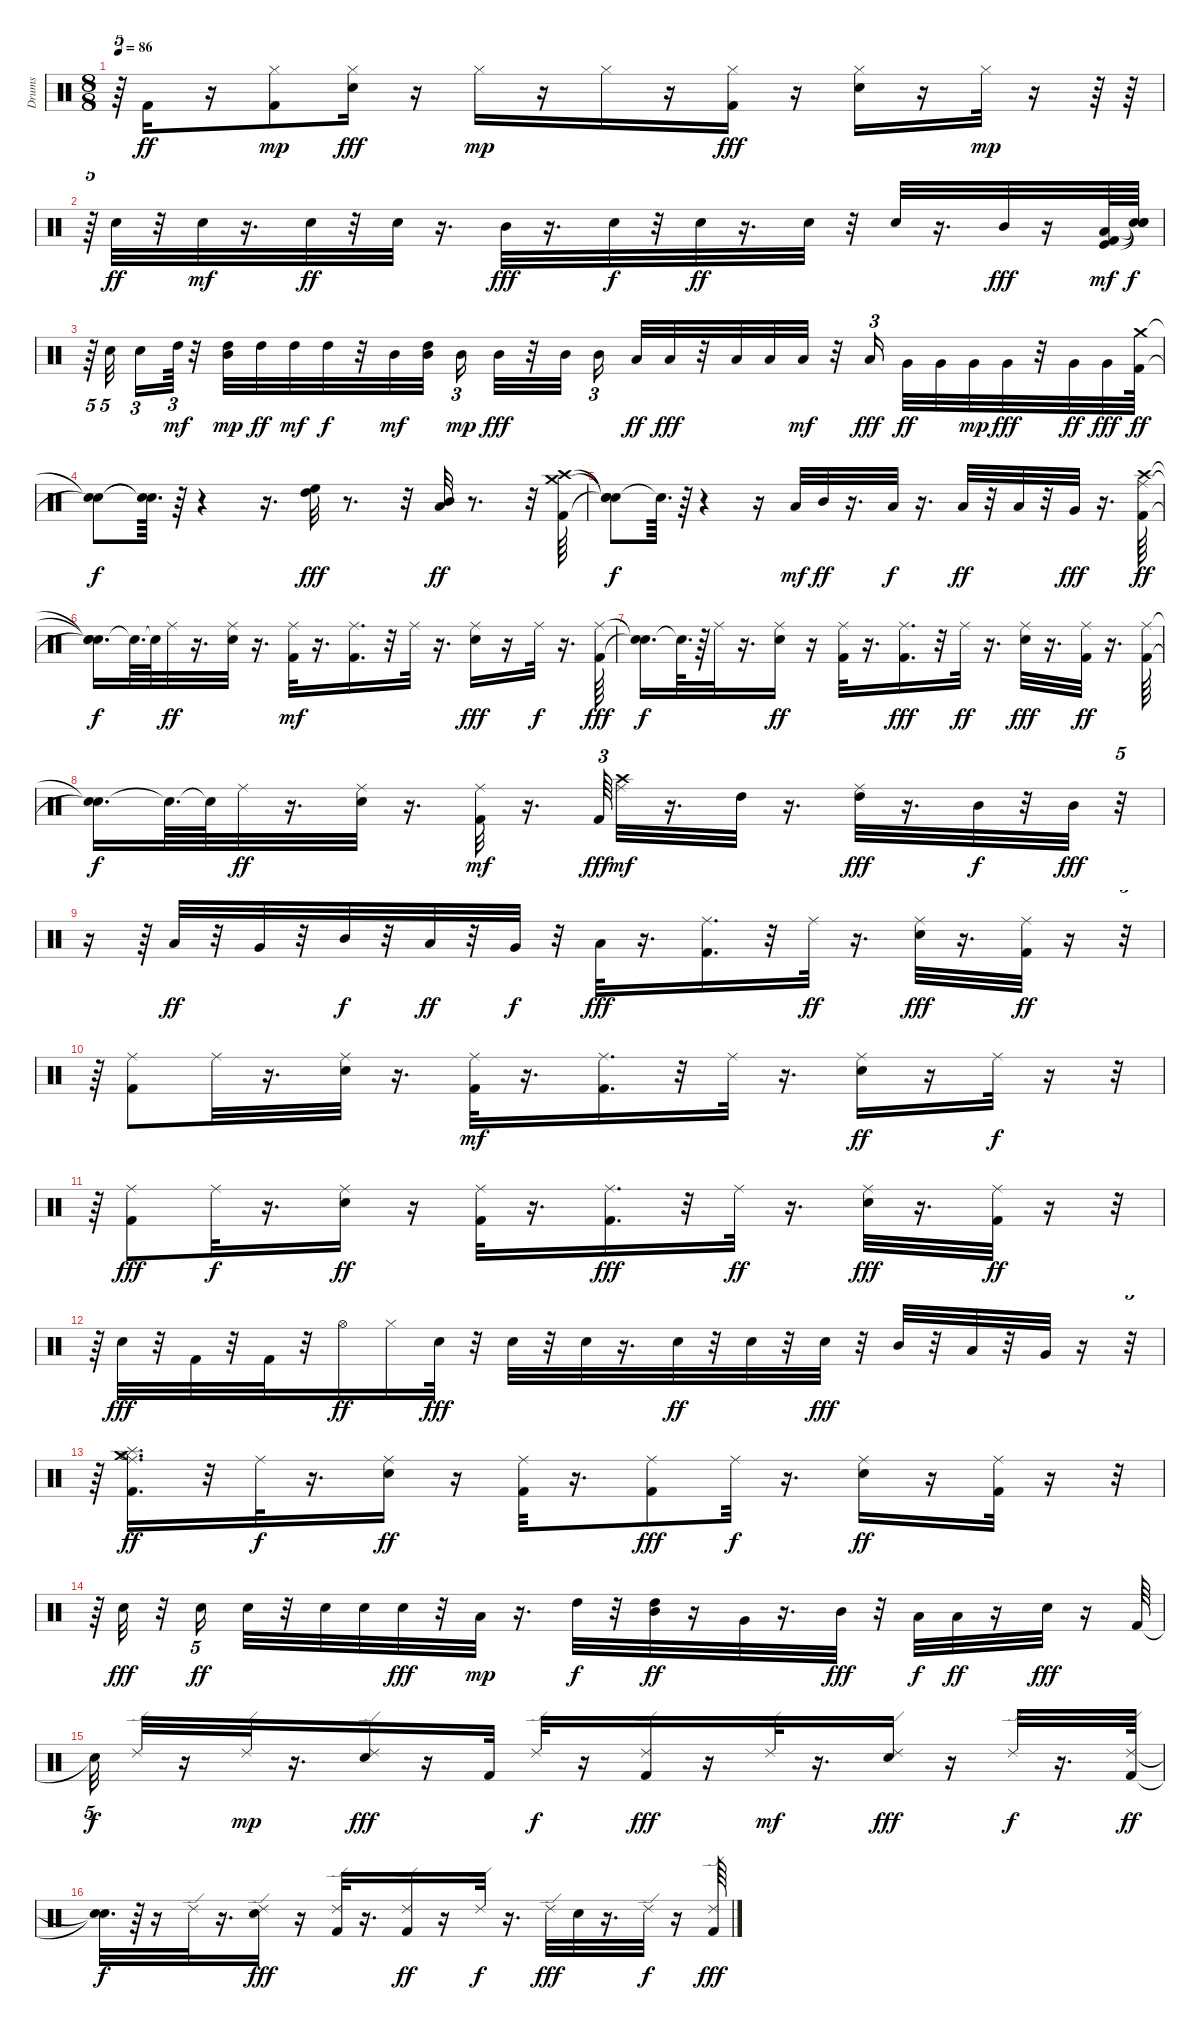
\track ("Drums" "Drums") {instrument percussion}
\staff {score}
\articulation defaults
\ts (8 8)
\tempo 86
\clef neutral
\ks c
r.64{tu (5 4) dy mp} "Kick (hit) 2".16{dy ff} r.16 ("Kick (hit) 2" "Hi-Hat (closed)").8{dy mp} ("Hi-Hat (closed)" "Electric Snare (hit)").16{dy fff} r.16 "Hi-Hat (closed)".16{dy mp} r.16 "Hi-Hat (closed)".16 r.16 ("Kick (hit) 2" "Hi-Hat (closed)").16{dy fff} r.16 ("Hi-Hat (closed)" "Electric Snare (hit)").16 r.16 "Hi-Hat (closed)".32{dy mp} r.16 r.64 r.64 |
r.64{tu (5 4)} "Electric Snare (hit)".32{dy ff} r.32 "Electric Snare (hit)".32{dy mf} r.16{d} "Electric Snare (hit)".32{dy ff} r.32 "Electric Snare (hit)".32 r.16{d} "Mid Tom (hit)".32{dy fff} r.16{d} "Electric Snare (hit)".32{dy f} r.32 "Electric Snare (hit)".32{dy ff} r.16{d} "Electric Snare (hit)".32 r.32 "Electric Snare (hit)".32 r.16{d} "Mid Tom (hit)".32{dy fff} r.16 ("Kick (hit) 2" "Kick (hit)" "Low Floor Tom (hit)").64{dy mf} ("Snare (hit)"{t} "Snare (hit)"{t} "Snare (hit)"{t}).64{dy f} |
r.64{tu (5 4)} "Electric Snare (hit)".32{tu (5 4)} "Snare (hit) 2".16{tu (3 2)} "High Tom (hit)".64{tu (3 2) dy mf} r.32 ("High Tom (hit)" "Mid Tom (hit)").32{dy mp} "High Tom (hit)".32{dy ff} "High Tom (hit)".32{dy mf} "High Tom (hit)".32{dy f} r.32 "Mid Tom (hit)".32{dy mf} ("Mid Tom (hit)" "High Tom (hit)").32 "Mid Tom (hit)".16{tu (3 2) dy mp} "Mid Tom (hit)".32{dy fff} r.32 "Mid Tom (hit)".32 "Mid Tom (hit)".16{tu (3 2)} "Low Tom (hit)".32{dy ff} "Low Tom (hit)".32{dy fff} r.32 "Low Tom (hit)".32 "Low Tom (hit)".32 "Low Tom (hit)".32{dy mf} r.32 "Low Tom (hit)".16{tu (3 2) dy fff} "Very Low Tom (hit)".32{dy ff} "Very Low Tom (hit)".32 "Very Low Tom (hit)".32{dy mp} "Very Low Tom (hit)".32{dy fff} r.32 "Very Low Tom (hit)".32{dy ff} "Very Low Tom (hit)".32{dy fff} ("Crash medium (hit)" "Kick (hit) 2").64{dy ff} |
("Snare (hit)"{t} "Snare (hit)"{t}).8{dy f} ("Snare (hit)"{t} "Snare (hit)"{t}).64{d} r.64 r.4 r.16{d} ("High Floor Tom (hit)" "High Tom (hit)").32{dy fff} r.8{d} r.32 ("Mid Tom (hit)" "Low Tom (hit)").32{dy ff} r.8{d} r.32 ("Kick (hit) 2" "Crash high (hit)" "Crash medium (hit)").64 |
("Snare (hit)"{t} "Snare (hit)"{t} "Snare (hit)"{t}).8{dy f} "Snare (hit)"{t}.64{d} r.64 r.4 r.16 "Low Tom (hit)".32{dy mf} "Mid Tom (hit)".32{dy ff} r.16{d} "Low Tom (hit)".32{dy f} r.16{d} "Low Tom (hit)".32{dy ff} r.32 "Low Tom (hit)".32 r.32 "Very Low Tom (hit)".32{dy fff} r.16{d} ("Crash high (hit)" "Ride (middle)" "Kick (hit) 2").64{dy ff} |
("Snare (hit)"{t} "Snare (hit)"{t} "Snare (hit)"{t}).16{d dy f} "Snare (hit)"{t}.64{d} "Snare (hit)"{t}.64 "Ride (middle)".32{dy ff} r.16{d} ("Ride (middle)" "Electric Snare (hit)").32 r.16{d} ("Kick (hit) 2" "Ride (middle)").32{dy mf} r.16{d} ("Kick (hit) 2" "Ride (middle)").16{d} r.32 "Ride (middle)".32 r.16{d} ("Electric Snare (hit)" "Ride (middle)").16{dy fff} r.16 "Ride (middle)".32{dy f} r.16{d} ("Kick (hit) 2" "Ride (middle)").64{dy fff} |
("Snare (hit)"{t} "Snare (hit)"{t}).16{d dy f} "Snare (hit)"{t}.64{d} r.64 "Ride (middle)".32 r.16{d} ("Ride (middle)" "Electric Snare (hit)").16{dy ff} r.16 ("Ride (middle)" "Kick (hit) 2").32 r.16{d} ("Ride (middle)" "Kick (hit) 2").16{d dy fff} r.32 "Ride (middle)".32{dy ff} r.16{d} ("Electric Snare (hit)" "Ride (middle)").32{dy fff} r.16{d} ("Kick (hit) 2" "Ride (middle)").32{dy ff} r.16{d} ("Ride (middle)" "Kick (hit) 2").64 |
("Snare (hit)"{t} "Snare (hit)"{t}).16{d dy f} "Snare (hit)"{t}.64{d} "Snare (hit)"{t}.64 "Ride (middle)".32{dy ff} r.16{d} ("Electric Snare (hit)" "Ride (middle)").32 r.16{d} ("Kick (hit) 2" "Ride (middle)").32{dy mf} r.16{d} "Kick (hit) 2".64{tu (3 2) dy fff} ("Ride (middle)" "Crash high (hit)").32{dy mf} r.16{d} "High Tom (hit)".32 r.16{d} ("Ride (middle)" "High Tom (hit)").32{dy fff} r.16{d} "Mid Tom (hit)".32{dy f} r.32 "Mid Tom (hit)".32{dy fff} r.32{tu (5 4)} |
r.16 r.64 "Low Tom (hit)".32{dy ff} r.32 "Very Low Tom (hit)".32 r.32 "Mid Tom (hit)".32{dy f} r.32 "Low Floor Tom (hit)".32{dy ff} r.32 "Very Low Tom (hit)".32{dy f} r.32 "Low Floor Tom (hit)".32{dy fff} r.16{d} ("Kick (hit) 2" "Ride (middle)").16{d} r.32 "Ride (middle)".32{dy ff} r.16{d} ("Electric Snare (hit)" "Ride (middle)").32{dy fff} r.16{d} ("Kick (hit) 2" "Ride (middle)").32{dy ff} r.16 r.32{tu (5 4)} |
r.64 ("Ride (middle)" "Kick (hit) 2").8 "Ride (middle)".32 r.16{d} ("Ride (middle)" "Electric Snare (hit)").32 r.16{d} ("Kick (hit) 2" "Ride (middle)").32{dy mf} r.16{d} ("Kick (hit) 2" "Ride (middle)").16{d} r.32 "Ride (middle)".32 r.16{d} ("Ride (middle)" "Electric Snare (hit)").16{dy ff} r.16 "Ride (middle)".32{dy f} r.16 r.32{tu (5 4)} |
r.64 ("Ride (middle)" "Kick (hit) 2").8{dy fff} "Ride (middle)".32{dy f} r.16{d} ("Ride (middle)" "Electric Snare (hit)").16{dy ff} r.16 ("Ride (middle)" "Kick (hit) 2").32 r.16{d} ("Ride (middle)" "Kick (hit) 2").16{d dy fff} r.32 "Ride (middle)".32{dy ff} r.16{d} ("Electric Snare (hit)" "Ride (middle)").32{dy fff} r.16{d} ("Kick (hit) 2" "Ride (middle)").32{dy ff} r.16 r.32{tu (5 4)} |
r.64 "Electric Snare (hit)".32{dy fff} r.32 "Kick (hit) 2".32 r.32 "Kick (hit) 2".32 r.32 "Hi-Hat (open)".16{dy ff} "Hi-Hat (closed)".16 "Electric Snare (hit)".32{dy fff} r.32 "Electric Snare (hit)".32 r.32 "Electric Snare (hit)".32 r.16{d} "Electric Snare (hit)".32{dy ff} r.32 "Snare (hit) 2".32 r.32 "Snare (hit) 2".32{dy fff} r.32 "Mid Tom (hit)".32 r.32 "Low Tom (hit)".32 r.32 "Very Low Tom (hit)".32 r.16 r.32{tu (5 4)} |
r.64 ("Hi-Hat (open)" "Splash (hit)" "Crash medium (hit)" "Ride (middle)" "Kick (hit) 2").16{d dy ff} r.32 "Ride (middle)".32{dy f} r.16{d} ("Electric Snare (hit)" "Ride (middle)").16{dy ff} r.16 ("Ride (middle)" "Kick (hit) 2").32 r.16{d} ("Kick (hit) 2" "Ride (middle)").8{dy fff} "Ride (middle)".32{dy f} r.16{d} ("Ride (middle)" "Electric Snare (hit)").16{dy ff} r.16 ("Kick (hit) 2" "Ride (middle)").32 r.16 r.32{tu (5 4)} |
r.64 "Electric Snare (hit)".32{dy fff} r.32 "Electric Snare (hit)".16{tu (5 4) dy ff} "Snare (hit) 2".32 r.32 "Electric Snare (hit)".32 "Electric Snare (hit)".32 "Electric Snare (hit)".32{dy fff} r.32 "Low Tom (hit)".32{dy mp} r.16{d} "High Tom (hit)".32{dy f} r.32 ("Mid Tom (hit)" "High Tom (hit)").32{dy ff} r.16 "Very Low Tom (hit)".32 r.16{d} "Mid Tom (hit)".32{dy fff} r.32 "Low Tom (hit)".32{dy f} "Low Floor Tom (hit)".32{dy ff} r.16 "Snare (hit) 2".32{dy fff} r.16 "Kick (hit) 2".64 |
"Snare (hit)"{t}.32{tu (5 4) dy f} "Ride (edge) 2".32 r.16 "Ride (edge) 2".32{dy mp} r.16{d} ("Ride (edge) 2" "Electric Snare (hit)").16{dy fff} r.16 "Kick (hit) 2".32 "Ride (edge) 2".32{dy f} r.16 ("Kick (hit) 2" "Ride (edge) 2").16{dy fff} r.16 "Ride (edge) 2".32{dy mf} r.16{d} ("Ride (edge) 2" "Electric Snare (hit)").16{dy fff} r.16 "Ride (edge) 2".32{dy f} r.16{d} ("Ride (edge) 2" "Kick (hit) 2").64{dy ff} |
("Snare (hit)"{t} "Snare (hit)"{t}).32{d dy f} r.64 r.16 "Ride (edge) 2".32 r.16{d} ("Ride (edge) 2" "Electric Snare (hit)").16{dy fff} r.16 ("Kick (hit) 2" "Ride (edge) 2").32 r.16{d} ("Kick (hit) 2" "Ride (edge) 2").16{dy ff} r.16 "Ride (edge) 2".32{dy f} r.16{d} "Ride (edge) 2".32{dy fff} "Electric Snare (hit)".32 r.16{d} "Ride (edge) 2".32{dy f} r.16 ("Kick (hit) 2" "Ride (edge) 2").64{dy fff}
